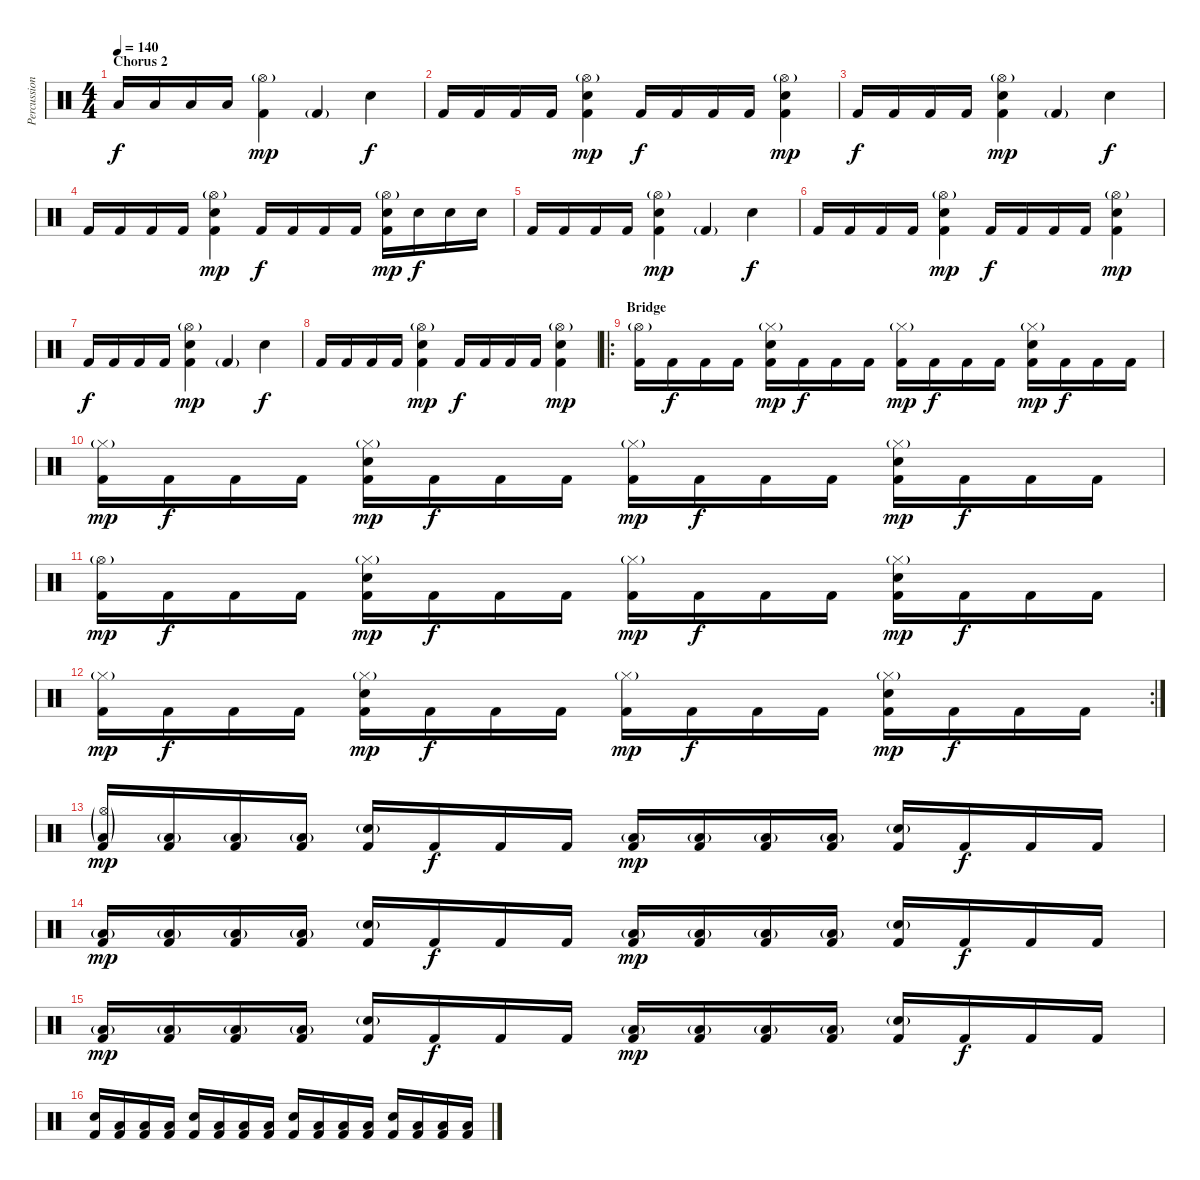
\track ("Percussions" "Percussion") {instrument percussion}
\staff {score}
\articulation defaults
\ts (4 4)
\section ("" "Chorus 2")
\tempo 140
\clef neutral
\ks c "Low Floor Tom (hit)".16{dy f} "Low Floor Tom (hit)".16 "Low Floor Tom (hit)".16 "Low Floor Tom (hit)".16
("Hi-Hat (open)"{g} "Kick (hit) 2").4{dy mp} "Kick (hit) 2"{g}.4 "Electric Snare (hit)".4{dy f} |
"Kick (hit) 2".16 "Kick (hit) 2".16 "Kick (hit) 2".16 "Kick (hit) 2".16 ("Hi-Hat (open)"{g} "Electric Snare (hit)" "Kick (hit) 2").4{dy mp} "Kick (hit) 2".16{dy f} "Kick (hit) 2".16 "Kick (hit) 2".16 "Kick (hit) 2".16 ("Hi-Hat (open)"{g} "Electric Snare (hit)" "Kick (hit) 2").4{dy mp} |
"Kick (hit) 2".16{dy f} "Kick (hit) 2".16 "Kick (hit) 2".16 "Kick (hit) 2".16 ("Hi-Hat (open)"{g} "Electric Snare (hit)" "Kick (hit) 2").4{dy mp} "Kick (hit) 2"{g}.4 "Electric Snare (hit)".4{dy f} |
"Kick (hit) 2".16 "Kick (hit) 2".16 "Kick (hit) 2".16 "Kick (hit) 2".16 ("Hi-Hat (open)"{g} "Electric Snare (hit)" "Kick (hit) 2").4{dy mp} "Kick (hit) 2".16{dy f} "Kick (hit) 2".16 "Kick (hit) 2".16 "Kick (hit) 2".16 ("Hi-Hat (open)"{g} "Electric Snare (hit)" "Kick (hit) 2").16{dy mp} "Electric Snare (hit)".16{dy f} "Electric Snare (hit)".16 "Electric Snare (hit)".16 |
"Kick (hit) 2".16 "Kick (hit) 2".16 "Kick (hit) 2".16 "Kick (hit) 2".16 ("Hi-Hat (open)"{g} "Electric Snare (hit)" "Kick (hit) 2").4{dy mp} "Kick (hit) 2"{g}.4 "Electric Snare (hit)".4{dy f} |
"Kick (hit) 2".16 "Kick (hit) 2".16 "Kick (hit) 2".16 "Kick (hit) 2".16 ("Hi-Hat (open)"{g} "Electric Snare (hit)" "Kick (hit) 2").4{dy mp} "Kick (hit) 2".16{dy f} "Kick (hit) 2".16 "Kick (hit) 2".16 "Kick (hit) 2".16 ("Hi-Hat (open)"{g} "Electric Snare (hit)" "Kick (hit) 2").4{dy mp} |
"Kick (hit) 2".16{dy f} "Kick (hit) 2".16 "Kick (hit) 2".16 "Kick (hit) 2".16 ("Hi-Hat (open)"{g} "Electric Snare (hit)" "Kick (hit) 2").4{dy mp} "Kick (hit) 2"{g}.4 "Electric Snare (hit)".4{dy f} |
"Kick (hit) 2".16 "Kick (hit) 2".16 "Kick (hit) 2".16 "Kick (hit) 2".16 ("Hi-Hat (open)"{g} "Electric Snare (hit)" "Kick (hit) 2").4{dy mp} "Kick (hit) 2".16{dy f} "Kick (hit) 2".16 "Kick (hit) 2".16 "Kick (hit) 2".16 ("Hi-Hat (open)"{g} "Electric Snare (hit)" "Kick (hit) 2").4{dy mp} |
\ro
\section ("" "Bridge")
("Hi-Hat (open)"{g} "Kick (hit) 2").16 "Kick (hit) 2".16{dy f} "Kick (hit) 2".16 "Kick (hit) 2".16 ("Hi-Hat (closed)"{g} "Electric Snare (hit)" "Kick (hit) 2").16{dy mp} "Kick (hit) 2".16{dy f} "Kick (hit) 2".16 "Kick (hit) 2".16 ("Hi-Hat (closed)"{g} "Kick (hit) 2").16{dy mp} "Kick (hit) 2".16{dy f} "Kick (hit) 2".16 "Kick (hit) 2".16 ("Hi-Hat (closed)"{g} "Electric Snare (hit)" "Kick (hit) 2").16{dy mp} "Kick (hit) 2".16{dy f} "Kick (hit) 2".16 "Kick (hit) 2".16 |
("Hi-Hat (closed)"{g} "Kick (hit) 2").16{dy mp} "Kick (hit) 2".16{dy f} "Kick (hit) 2".16 "Kick (hit) 2".16 ("Hi-Hat (closed)"{g} "Electric Snare (hit)" "Kick (hit) 2").16{dy mp} "Kick (hit) 2".16{dy f} "Kick (hit) 2".16 "Kick (hit) 2".16 ("Hi-Hat (closed)"{g} "Kick (hit) 2").16{dy mp} "Kick (hit) 2".16{dy f} "Kick (hit) 2".16 "Kick (hit) 2".16 ("Hi-Hat (closed)"{g} "Electric Snare (hit)" "Kick (hit) 2").16{dy mp} "Kick (hit) 2".16{dy f} "Kick (hit) 2".16 "Kick (hit) 2".16 |
("Hi-Hat (open)"{g} "Kick (hit) 2").16{dy mp} "Kick (hit) 2".16{dy f} "Kick (hit) 2".16 "Kick (hit) 2".16 ("Hi-Hat (closed)"{g} "Electric Snare (hit)" "Kick (hit) 2").16{dy mp} "Kick (hit) 2".16{dy f} "Kick (hit) 2".16 "Kick (hit) 2".16 ("Hi-Hat (closed)"{g} "Kick (hit) 2").16{dy mp} "Kick (hit) 2".16{dy f} "Kick (hit) 2".16 "Kick (hit) 2".16 ("Hi-Hat (closed)"{g} "Electric Snare (hit)" "Kick (hit) 2").16{dy mp} "Kick (hit) 2".16{dy f} "Kick (hit) 2".16 "Kick (hit) 2".16 |
\rc 2
("Hi-Hat (closed)"{g} "Kick (hit) 2").16{dy mp} "Kick (hit) 2".16{dy f} "Kick (hit) 2".16 "Kick (hit) 2".16 ("Hi-Hat (closed)"{g} "Electric Snare (hit)" "Kick (hit) 2").16{dy mp} "Kick (hit) 2".16{dy f} "Kick (hit) 2".16 "Kick (hit) 2".16 ("Hi-Hat (closed)"{g} "Kick (hit) 2").16{dy mp} "Kick (hit) 2".16{dy f} "Kick (hit) 2".16 "Kick (hit) 2".16 ("Hi-Hat (closed)"{g} "Electric Snare (hit)" "Kick (hit) 2").16{dy mp} "Kick (hit) 2".16{dy f} "Kick (hit) 2".16 "Kick (hit) 2".16 |
("Hi-Hat (open)"{g} "Low Floor Tom (hit)"{g} "Kick (hit) 2").16{dy mp} ("Low Floor Tom (hit)"{g} "Kick (hit) 2").16 ("Low Floor Tom (hit)"{g} "Kick (hit) 2").16 ("Low Floor Tom (hit)"{g} "Kick (hit) 2").16 ("Electric Snare (hit)"{g} "Kick (hit) 2").16 "Kick (hit) 2".16{dy f} "Kick (hit) 2".16 "Kick (hit) 2".16 ("Low Floor Tom (hit)"{g} "Kick (hit) 2").16{dy mp} ("Low Floor Tom (hit)"{g} "Kick (hit) 2").16 ("Low Floor Tom (hit)"{g} "Kick (hit) 2").16 ("Low Floor Tom (hit)"{g} "Kick (hit) 2").16 ("Electric Snare (hit)"{g} "Kick (hit) 2").16 "Kick (hit) 2".16{dy f} "Kick (hit) 2".16 "Kick (hit) 2".16 |
("Low Floor Tom (hit)"{g} "Kick (hit) 2").16{dy mp} ("Low Floor Tom (hit)"{g} "Kick (hit) 2").16 ("Low Floor Tom (hit)"{g} "Kick (hit) 2").16 ("Low Floor Tom (hit)"{g} "Kick (hit) 2").16 ("Electric Snare (hit)"{g} "Kick (hit) 2").16 "Kick (hit) 2".16{dy f} "Kick (hit) 2".16 "Kick (hit) 2".16 ("Low Floor Tom (hit)"{g} "Kick (hit) 2").16{dy mp} ("Low Floor Tom (hit)"{g} "Kick (hit) 2").16 ("Low Floor Tom (hit)"{g} "Kick (hit) 2").16 ("Low Floor Tom (hit)"{g} "Kick (hit) 2").16 ("Electric Snare (hit)"{g} "Kick (hit) 2").16 "Kick (hit) 2".16{dy f} "Kick (hit) 2".16 "Kick (hit) 2".16 |
("Low Floor Tom (hit)"{g} "Kick (hit) 2").16{dy mp} ("Low Floor Tom (hit)"{g} "Kick (hit) 2").16 ("Low Floor Tom (hit)"{g} "Kick (hit) 2").16 ("Low Floor Tom (hit)"{g} "Kick (hit) 2").16 ("Electric Snare (hit)"{g} "Kick (hit) 2").16 "Kick (hit) 2".16{dy f} "Kick (hit) 2".16 "Kick (hit) 2".16 ("Low Floor Tom (hit)"{g} "Kick (hit) 2").16{dy mp} ("Low Floor Tom (hit)"{g} "Kick (hit) 2").16 ("Low Floor Tom (hit)"{g} "Kick (hit) 2").16 ("Low Floor Tom (hit)"{g} "Kick (hit) 2").16 ("Electric Snare (hit)"{g} "Kick (hit) 2").16 "Kick (hit) 2".16{dy f} "Kick (hit) 2".16 "Kick (hit) 2".16 |
("Electric Snare (hit)" "Kick (hit) 2").16 ("Low Floor Tom (hit)" "Kick (hit) 2").16 ("Low Floor Tom (hit)" "Kick (hit) 2").16 ("Low Floor Tom (hit)" "Kick (hit) 2").16 ("Electric Snare (hit)" "Kick (hit) 2").16 ("Low Floor Tom (hit)" "Kick (hit) 2").16 ("Low Floor Tom (hit)" "Kick (hit) 2").16 ("Low Floor Tom (hit)" "Kick (hit) 2").16 ("Electric Snare (hit)" "Kick (hit) 2").16 ("Low Floor Tom (hit)" "Kick (hit) 2").16 ("Low Floor Tom (hit)" "Kick (hit) 2").16 ("Low Floor Tom (hit)" "Kick (hit) 2").16 ("Electric Snare (hit)" "Kick (hit) 2").16 ("Low Floor Tom (hit)" "Kick (hit) 2").16 ("Low Floor Tom (hit)" "Kick (hit) 2").16 ("Low Floor Tom (hit)" "Kick (hit) 2").16
